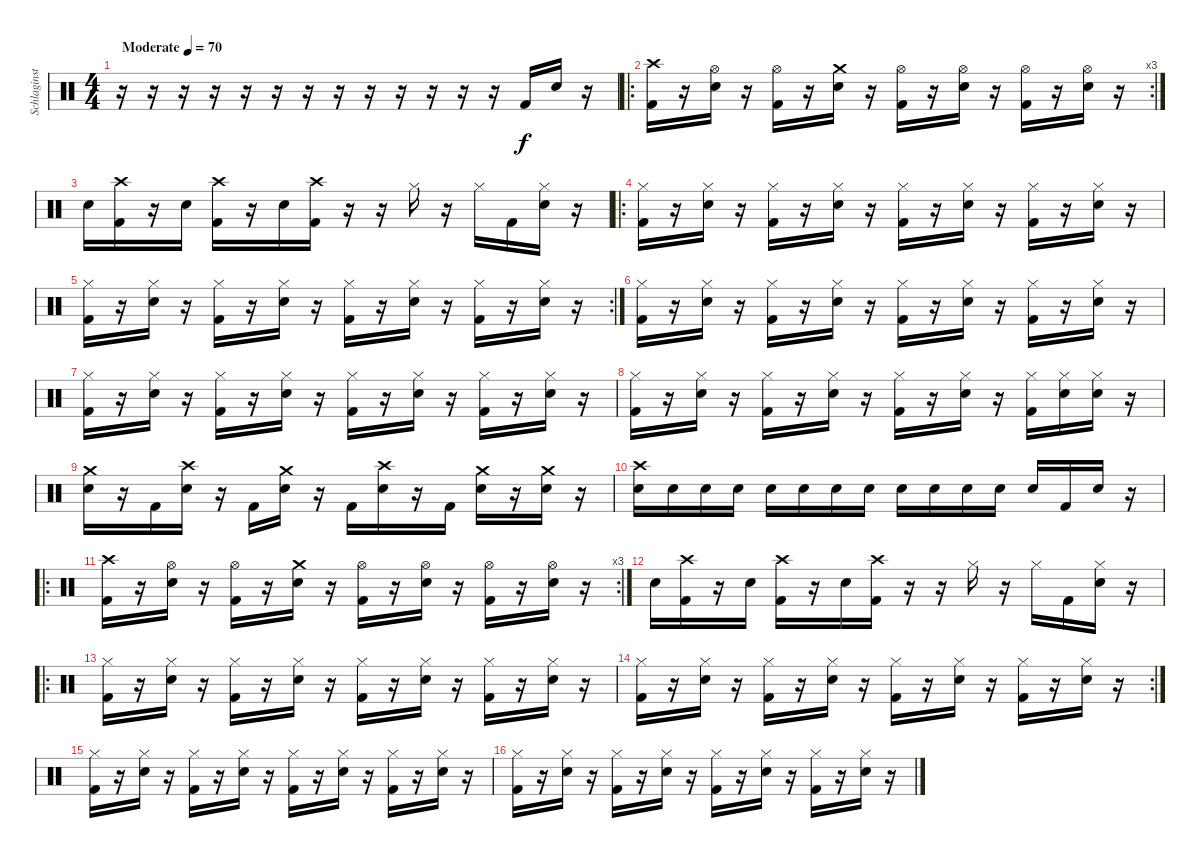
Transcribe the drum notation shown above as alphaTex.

\track ("Schlaginstrumente - Auswahl" "Schlaginst") {instrument percussion}
\staff {score}
\articulation defaults
\ts (4 4)
\tempo (70 "Moderate")
\clef neutral
\ks c
r.16{dy f} r.16 r.16 r.16 r.16 r.16 r.16 r.16 r.16 r.16 r.16 r.16 r.16 "Kick (hit) 2".16 "Snare (hit) 2".16 r.16 |
\ro
\rc 3
("Crash high (hit)" "Kick (hit) 2").16 r.16 ("Hi-Hat (open)" "Snare (hit) 2").16 r.16 ("Hi-Hat (open)" "Kick (hit) 2").16 r.16 ("Crash medium (hit)" "Snare (hit) 2").16 r.16 ("Hi-Hat (open)" "Kick (hit) 2").16 r.16 ("Hi-Hat (open)" "Snare (hit) 2").16 r.16 ("Hi-Hat (open)" "Kick (hit) 2").16 r.16 ("Hi-Hat (open)" "Snare (hit) 2").16 r.16 |
"Snare (hit) 2".16 ("Crash high (hit)" "Kick (hit) 2").16 r.16 "Snare (hit) 2".16 ("Crash high (hit)" "Kick (hit) 2").16 r.16 "Snare (hit) 2".16 ("Crash high (hit)" "Kick (hit) 2").16 r.16 r.16 "Hi-Hat (closed)".16 r.16 "Hi-Hat (closed)".16 "Kick (hit) 2".16 ("Hi-Hat (closed)" "Snare (hit) 2").16 r.16 |
\ro
("Hi-Hat (closed)" "Kick (hit) 2").16 r.16 ("Hi-Hat (closed)" "Snare (hit) 2").16 r.16 ("Hi-Hat (closed)" "Kick (hit) 2").16 r.16 ("Hi-Hat (closed)" "Snare (hit) 2").16 r.16 ("Hi-Hat (closed)" "Kick (hit) 2").16 r.16 ("Hi-Hat (closed)" "Snare (hit) 2").16 r.16 ("Hi-Hat (closed)" "Kick (hit) 2").16 r.16 ("Hi-Hat (closed)" "Snare (hit) 2").16 r.16 |
\rc 2
("Hi-Hat (closed)" "Kick (hit) 2").16 r.16 ("Hi-Hat (closed)" "Snare (hit) 2").16 r.16 ("Hi-Hat (closed)" "Kick (hit) 2").16 r.16 ("Hi-Hat (closed)" "Snare (hit) 2").16 r.16 ("Hi-Hat (closed)" "Kick (hit) 2").16 r.16 ("Hi-Hat (closed)" "Snare (hit) 2").16 r.16 ("Hi-Hat (closed)" "Kick (hit) 2").16 r.16 ("Hi-Hat (closed)" "Snare (hit) 2").16 r.16 |
("Hi-Hat (closed)" "Kick (hit) 2").16 r.16 ("Hi-Hat (closed)" "Snare (hit) 2").16 r.16 ("Hi-Hat (closed)" "Kick (hit) 2").16 r.16 ("Hi-Hat (closed)" "Snare (hit) 2").16 r.16 ("Hi-Hat (closed)" "Kick (hit) 2").16 r.16 ("Hi-Hat (closed)" "Snare (hit) 2").16 r.16 ("Hi-Hat (closed)" "Kick (hit) 2").16 r.16 ("Hi-Hat (closed)" "Snare (hit) 2").16 r.16 |
("Hi-Hat (closed)" "Kick (hit) 2").16 r.16 ("Hi-Hat (closed)" "Snare (hit) 2").16 r.16 ("Hi-Hat (closed)" "Kick (hit) 2").16 r.16 ("Hi-Hat (closed)" "Snare (hit) 2").16 r.16 ("Hi-Hat (closed)" "Kick (hit) 2").16 r.16 ("Hi-Hat (closed)" "Snare (hit) 2").16 r.16 ("Hi-Hat (closed)" "Kick (hit) 2").16 r.16 ("Hi-Hat (closed)" "Snare (hit) 2").16 r.16 |
("Hi-Hat (closed)" "Kick (hit) 2").16 r.16 ("Hi-Hat (closed)" "Snare (hit) 2").16 r.16 ("Hi-Hat (closed)" "Kick (hit) 2").16 r.16 ("Hi-Hat (closed)" "Snare (hit) 2").16 r.16 ("Hi-Hat (closed)" "Kick (hit) 2").16 r.16 ("Hi-Hat (closed)" "Snare (hit) 2").16 r.16 ("Hi-Hat (closed)" "Kick (hit) 2").16 ("Hi-Hat (closed)" "Snare (hit) 2").16 ("Hi-Hat (closed)" "Snare (hit) 2").16 r.16 |
("Crash medium (hit)" "Snare (hit) 2").16 r.16 "Kick (hit) 2".16 ("Crash high (hit)" "Snare (hit) 2").16 r.16 "Kick (hit) 2".16 ("Crash medium (hit)" "Snare (hit) 2").16 r.16 "Kick (hit) 2".16 ("Crash high (hit)" "Snare (hit) 2").16 r.16 "Kick (hit) 2".16 ("Crash medium (hit)" "Snare (hit) 2").16 r.16 ("Crash medium (hit)" "Snare (hit) 2").16 r.16 |
("Crash high (hit)" "Snare (hit) 2").16 "Snare (hit) 2".16 "Snare (hit) 2".16 "Snare (hit) 2".16 "Snare (hit) 2".16 "Snare (hit) 2".16 "Snare (hit) 2".16 "Snare (hit) 2".16 "Snare (hit) 2".16 "Snare (hit) 2".16 "Snare (hit) 2".16 "Snare (hit) 2".16 "Snare (hit) 2".16 "Kick (hit) 2".16 "Snare (hit) 2".16 r.16 |
\ro
\rc 3
("Crash high (hit)" "Kick (hit) 2").16 r.16 ("Hi-Hat (open)" "Snare (hit) 2").16 r.16 ("Hi-Hat (open)" "Kick (hit) 2").16 r.16 ("Crash medium (hit)" "Snare (hit) 2").16 r.16 ("Hi-Hat (open)" "Kick (hit) 2").16 r.16 ("Hi-Hat (open)" "Snare (hit) 2").16 r.16 ("Hi-Hat (open)" "Kick (hit) 2").16 r.16 ("Hi-Hat (open)" "Snare (hit) 2").16 r.16 |
"Snare (hit) 2".16 ("Crash high (hit)" "Kick (hit) 2").16 r.16 "Snare (hit) 2".16 ("Crash high (hit)" "Kick (hit) 2").16 r.16 "Snare (hit) 2".16 ("Crash high (hit)" "Kick (hit) 2").16 r.16 r.16 "Hi-Hat (closed)".16 r.16 "Hi-Hat (closed)".16 "Kick (hit) 2".16 ("Hi-Hat (closed)" "Snare (hit) 2").16 r.16 |
\ro
("Hi-Hat (closed)" "Kick (hit) 2").16 r.16 ("Hi-Hat (closed)" "Snare (hit) 2").16 r.16 ("Hi-Hat (closed)" "Kick (hit) 2").16 r.16 ("Hi-Hat (closed)" "Snare (hit) 2").16 r.16 ("Hi-Hat (closed)" "Kick (hit) 2").16 r.16 ("Hi-Hat (closed)" "Snare (hit) 2").16 r.16 ("Hi-Hat (closed)" "Kick (hit) 2").16 r.16 ("Hi-Hat (closed)" "Snare (hit) 2").16 r.16 |
\rc 2
("Hi-Hat (closed)" "Kick (hit) 2").16 r.16 ("Hi-Hat (closed)" "Snare (hit) 2").16 r.16 ("Hi-Hat (closed)" "Kick (hit) 2").16 r.16 ("Hi-Hat (closed)" "Snare (hit) 2").16 r.16 ("Hi-Hat (closed)" "Kick (hit) 2").16 r.16 ("Hi-Hat (closed)" "Snare (hit) 2").16 r.16 ("Hi-Hat (closed)" "Kick (hit) 2").16 r.16 ("Hi-Hat (closed)" "Snare (hit) 2").16 r.16 |
("Hi-Hat (closed)" "Kick (hit) 2").16 r.16 ("Hi-Hat (closed)" "Snare (hit) 2").16 r.16 ("Hi-Hat (closed)" "Kick (hit) 2").16 r.16 ("Hi-Hat (closed)" "Snare (hit) 2").16 r.16 ("Hi-Hat (closed)" "Kick (hit) 2").16 r.16 ("Hi-Hat (closed)" "Snare (hit) 2").16 r.16 ("Hi-Hat (closed)" "Kick (hit) 2").16 r.16 ("Hi-Hat (closed)" "Snare (hit) 2").16 r.16 |
("Hi-Hat (closed)" "Kick (hit) 2").16 r.16 ("Hi-Hat (closed)" "Snare (hit) 2").16 r.16 ("Hi-Hat (closed)" "Kick (hit) 2").16 r.16 ("Hi-Hat (closed)" "Snare (hit) 2").16 r.16 ("Hi-Hat (closed)" "Kick (hit) 2").16 r.16 ("Hi-Hat (closed)" "Snare (hit) 2").16 r.16 ("Hi-Hat (closed)" "Kick (hit) 2").16 r.16 ("Hi-Hat (closed)" "Snare (hit) 2").16 r.16
